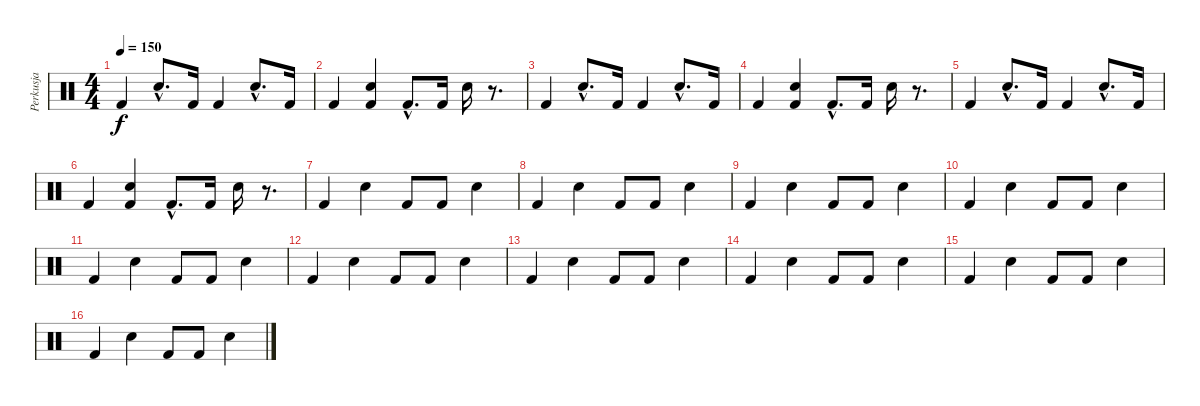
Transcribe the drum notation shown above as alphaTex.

\track ("Perkusja" "Perkusja") {instrument percussion}
\staff {score}
\articulation defaults
\ts (4 4)
\tempo 150
\clef neutral
\ks c "Kick (hit) 2".4{dy f} "Electric Snare (hit)"{hac}.8{d} "Kick (hit) 2".16 "Kick (hit) 2".4 "Electric Snare (hit)"{hac}.8{d} "Kick (hit) 2".16
|
"Kick (hit) 2".4 ("Electric Snare (hit)" "Kick (hit) 2").4 "Kick (hit) 2"{hac}.8{d} "Kick (hit) 2".16 "Electric Snare (hit)".16 r.8{d} |
"Kick (hit) 2".4 "Electric Snare (hit)"{hac}.8{d} "Kick (hit) 2".16 "Kick (hit) 2".4 "Electric Snare (hit)"{hac}.8{d} "Kick (hit) 2".16 |
"Kick (hit) 2".4 ("Electric Snare (hit)" "Kick (hit) 2").4 "Kick (hit) 2"{hac}.8{d} "Kick (hit) 2".16 "Electric Snare (hit)".16 r.8{d} |
"Kick (hit) 2".4 "Electric Snare (hit)"{hac}.8{d} "Kick (hit) 2".16 "Kick (hit) 2".4 "Electric Snare (hit)"{hac}.8{d} "Kick (hit) 2".16 |
"Kick (hit) 2".4 ("Electric Snare (hit)" "Kick (hit) 2").4 "Kick (hit) 2"{hac}.8{d} "Kick (hit) 2".16 "Electric Snare (hit)".16 r.8{d} |
"Kick (hit) 2".4 "Electric Snare (hit)".4 "Kick (hit) 2".8 "Kick (hit) 2".8 "Electric Snare (hit)".4 |
"Kick (hit) 2".4 "Electric Snare (hit)".4 "Kick (hit) 2".8 "Kick (hit) 2".8 "Electric Snare (hit)".4 |
"Kick (hit) 2".4 "Electric Snare (hit)".4 "Kick (hit) 2".8 "Kick (hit) 2".8 "Electric Snare (hit)".4 |
"Kick (hit) 2".4 "Electric Snare (hit)".4 "Kick (hit) 2".8 "Kick (hit) 2".8 "Electric Snare (hit)".4 |
"Kick (hit) 2".4 "Electric Snare (hit)".4 "Kick (hit) 2".8 "Kick (hit) 2".8 "Electric Snare (hit)".4 |
"Kick (hit) 2".4 "Electric Snare (hit)".4 "Kick (hit) 2".8 "Kick (hit) 2".8 "Electric Snare (hit)".4 |
"Kick (hit) 2".4 "Electric Snare (hit)".4 "Kick (hit) 2".8 "Kick (hit) 2".8 "Electric Snare (hit)".4 |
"Kick (hit) 2".4 "Electric Snare (hit)".4 "Kick (hit) 2".8 "Kick (hit) 2".8 "Electric Snare (hit)".4 |
"Kick (hit) 2".4 "Electric Snare (hit)".4 "Kick (hit) 2".8 "Kick (hit) 2".8 "Electric Snare (hit)".4 |
"Kick (hit) 2".4 "Electric Snare (hit)".4 "Kick (hit) 2".8 "Kick (hit) 2".8 "Electric Snare (hit)".4
